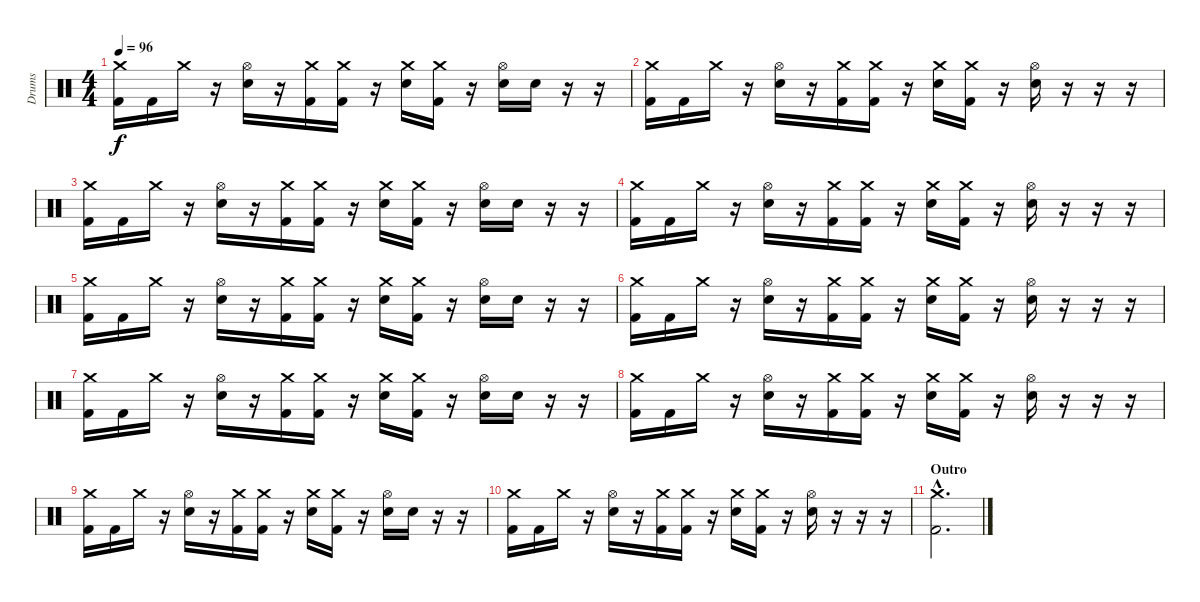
\track ("Drums" "Drums") {instrument percussion}
\staff {score}
\articulation defaults
\ts (4 4)
\tempo 96
\clef neutral
\ks c
("Crash medium (hit)" "Kick (hit) 2").16{dy f} "Kick (hit) 2".16 "Crash medium (hit)".16 r.16 ("Hi-Hat (open)" "Electric Snare (hit)").16 r.16 ("Crash medium (hit)" "Kick (hit) 2").16 ("Crash medium (hit)" "Kick (hit) 2").16 r.16 ("Crash medium (hit)" "Electric Snare (hit)").16 ("Crash medium (hit)" "Kick (hit) 2").16 r.16 ("Hi-Hat (open)" "Electric Snare (hit)").16 "Electric Snare (hit)".16 r.16 r.16 |
("Crash medium (hit)" "Kick (hit) 2").16 "Kick (hit) 2".16 "Crash medium (hit)".16 r.16 ("Hi-Hat (open)" "Electric Snare (hit)").16 r.16 ("Crash medium (hit)" "Kick (hit) 2").16 ("Crash medium (hit)" "Kick (hit) 2").16 r.16 ("Crash medium (hit)" "Electric Snare (hit)").16 ("Crash medium (hit)" "Kick (hit) 2").16 r.16 ("Hi-Hat (open)" "Electric Snare (hit)").16 r.16 r.16 r.16 |
("Crash medium (hit)" "Kick (hit) 2").16 "Kick (hit) 2".16 "Crash medium (hit)".16 r.16 ("Hi-Hat (open)" "Electric Snare (hit)").16 r.16 ("Crash medium (hit)" "Kick (hit) 2").16 ("Crash medium (hit)" "Kick (hit) 2").16 r.16 ("Crash medium (hit)" "Electric Snare (hit)").16 ("Crash medium (hit)" "Kick (hit) 2").16 r.16 ("Hi-Hat (open)" "Electric Snare (hit)").16 "Electric Snare (hit)".16 r.16 r.16 |
("Crash medium (hit)" "Kick (hit) 2").16 "Kick (hit) 2".16 "Crash medium (hit)".16 r.16 ("Hi-Hat (open)" "Electric Snare (hit)").16 r.16 ("Crash medium (hit)" "Kick (hit) 2").16 ("Crash medium (hit)" "Kick (hit) 2").16 r.16 ("Crash medium (hit)" "Electric Snare (hit)").16 ("Crash medium (hit)" "Kick (hit) 2").16 r.16 ("Hi-Hat (open)" "Electric Snare (hit)").16 r.16 r.16 r.16 |
("Crash medium (hit)" "Kick (hit) 2").16 "Kick (hit) 2".16 "Crash medium (hit)".16 r.16 ("Hi-Hat (open)" "Electric Snare (hit)").16 r.16 ("Crash medium (hit)" "Kick (hit) 2").16 ("Crash medium (hit)" "Kick (hit) 2").16 r.16 ("Crash medium (hit)" "Electric Snare (hit)").16 ("Crash medium (hit)" "Kick (hit) 2").16 r.16 ("Hi-Hat (open)" "Electric Snare (hit)").16 "Electric Snare (hit)".16 r.16 r.16 |
("Crash medium (hit)" "Kick (hit) 2").16 "Kick (hit) 2".16 "Crash medium (hit)".16 r.16 ("Hi-Hat (open)" "Electric Snare (hit)").16 r.16 ("Crash medium (hit)" "Kick (hit) 2").16 ("Crash medium (hit)" "Kick (hit) 2").16 r.16 ("Crash medium (hit)" "Electric Snare (hit)").16 ("Crash medium (hit)" "Kick (hit) 2").16 r.16 ("Hi-Hat (open)" "Electric Snare (hit)").16 r.16 r.16 r.16 |
("Crash medium (hit)" "Kick (hit) 2").16 "Kick (hit) 2".16 "Crash medium (hit)".16 r.16 ("Hi-Hat (open)" "Electric Snare (hit)").16 r.16 ("Crash medium (hit)" "Kick (hit) 2").16 ("Crash medium (hit)" "Kick (hit) 2").16 r.16 ("Crash medium (hit)" "Electric Snare (hit)").16 ("Crash medium (hit)" "Kick (hit) 2").16 r.16 ("Hi-Hat (open)" "Electric Snare (hit)").16 "Electric Snare (hit)".16 r.16 r.16 |
("Crash medium (hit)" "Kick (hit) 2").16 "Kick (hit) 2".16 "Crash medium (hit)".16 r.16 ("Hi-Hat (open)" "Electric Snare (hit)").16 r.16 ("Crash medium (hit)" "Kick (hit) 2").16 ("Crash medium (hit)" "Kick (hit) 2").16 r.16 ("Crash medium (hit)" "Electric Snare (hit)").16 ("Crash medium (hit)" "Kick (hit) 2").16 r.16 ("Hi-Hat (open)" "Electric Snare (hit)").16 r.16 r.16 r.16 |
("Crash medium (hit)" "Kick (hit) 2").16 "Kick (hit) 2".16 "Crash medium (hit)".16 r.16 ("Hi-Hat (open)" "Electric Snare (hit)").16 r.16 ("Crash medium (hit)" "Kick (hit) 2").16 ("Crash medium (hit)" "Kick (hit) 2").16 r.16 ("Crash medium (hit)" "Electric Snare (hit)").16 ("Crash medium (hit)" "Kick (hit) 2").16 r.16 ("Hi-Hat (open)" "Electric Snare (hit)").16 "Electric Snare (hit)".16 r.16 r.16 |
("Crash medium (hit)" "Kick (hit) 2").16 "Kick (hit) 2".16 "Crash medium (hit)".16 r.16 ("Hi-Hat (open)" "Electric Snare (hit)").16 r.16 ("Crash medium (hit)" "Kick (hit) 2").16 ("Crash medium (hit)" "Kick (hit) 2").16 r.16 ("Crash medium (hit)" "Electric Snare (hit)").16 ("Crash medium (hit)" "Kick (hit) 2").16 r.16 ("Hi-Hat (open)" "Electric Snare (hit)").16 r.16 r.16 r.16 |
\section ("" "Outro")
("Crash medium (hit)"{hac} "Kick (hit) 2"{hac}).2{d}
